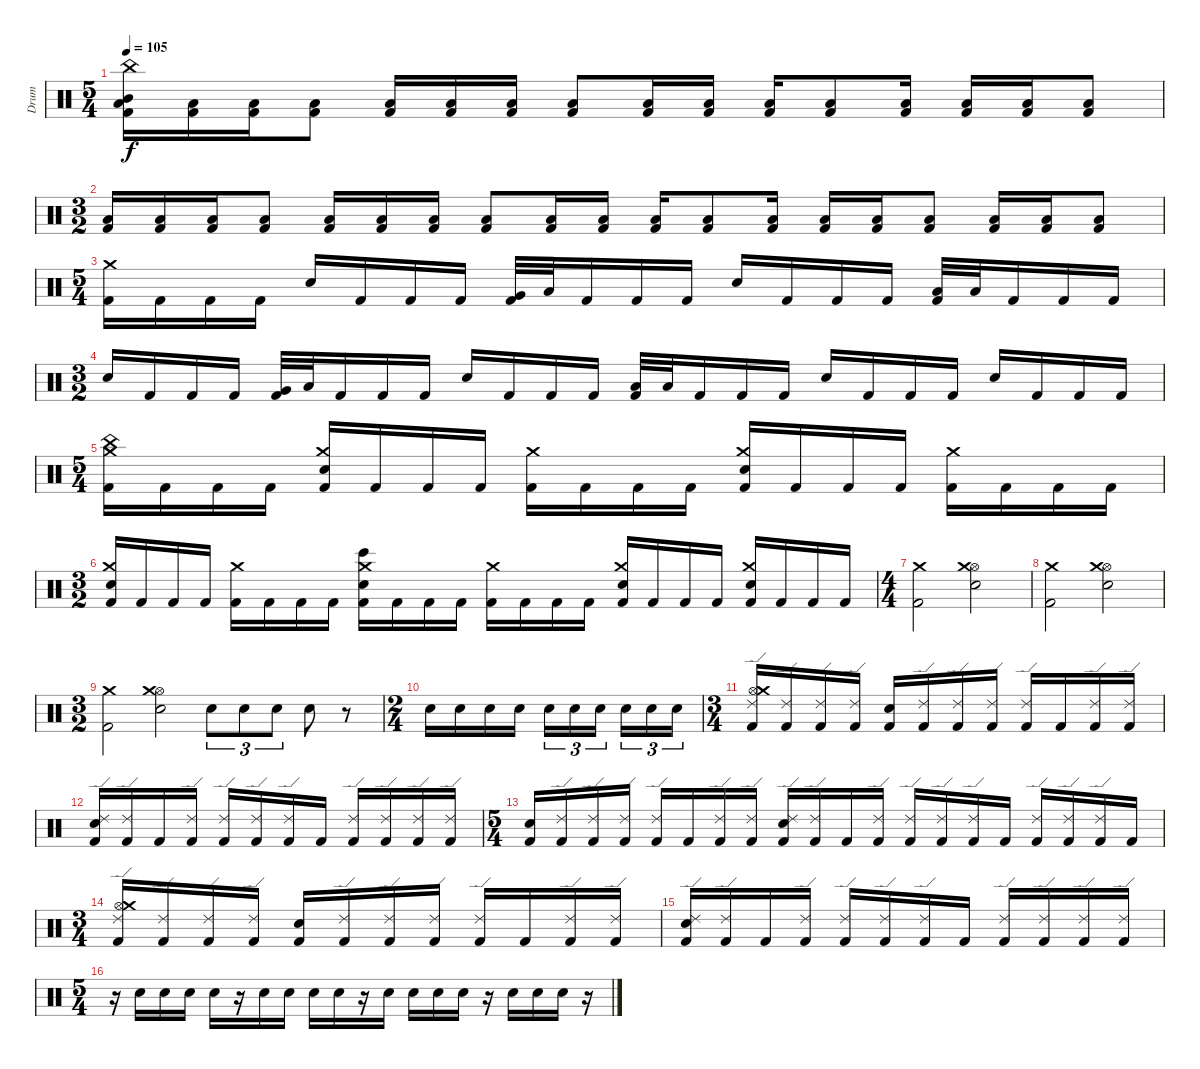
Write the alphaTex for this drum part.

\track ("Drum" "Drum") {instrument percussion}
\staff {score}
\articulation defaults
\ts (5 4)
\tempo 105
\clef neutral
\ks c
("China (hit)" "Low Floor Tom (hit)" "Mid Tom (hit)" "Kick (hit) 2").16{dy f} ("Low Floor Tom (hit)" "Kick (hit) 2").16 ("Low Floor Tom (hit)" "Kick (hit) 2").16 ("Low Floor Tom (hit)" "Kick (hit) 2").8 ("Low Floor Tom (hit)" "Kick (hit) 2").16 ("Low Floor Tom (hit)" "Kick (hit) 2").16 ("Low Floor Tom (hit)" "Kick (hit) 2").16 ("Low Floor Tom (hit)" "Kick (hit) 2").8 ("Low Floor Tom (hit)" "Kick (hit) 2").16 ("Low Floor Tom (hit)" "Kick (hit) 2").16 ("Low Floor Tom (hit)" "Kick (hit) 2").16 ("Low Floor Tom (hit)" "Kick (hit) 2").8 ("Low Floor Tom (hit)" "Kick (hit) 2").16 ("Low Floor Tom (hit)" "Kick (hit) 2").16 ("Low Floor Tom (hit)" "Kick (hit) 2").16 ("Low Floor Tom (hit)" "Kick (hit) 2").8 |
\ts (3 2)
("Low Floor Tom (hit)" "Kick (hit) 2").16 ("Low Floor Tom (hit)" "Kick (hit) 2").16 ("Low Floor Tom (hit)" "Kick (hit) 2").16 ("Low Floor Tom (hit)" "Kick (hit) 2").8 ("Low Floor Tom (hit)" "Kick (hit) 2").16 ("Low Floor Tom (hit)" "Kick (hit) 2").16 ("Low Floor Tom (hit)" "Kick (hit) 2").16 ("Low Floor Tom (hit)" "Kick (hit) 2").8 ("Low Floor Tom (hit)" "Kick (hit) 2").16 ("Low Floor Tom (hit)" "Kick (hit) 2").16 ("Low Floor Tom (hit)" "Kick (hit) 2").16 ("Low Floor Tom (hit)" "Kick (hit) 2").8 ("Low Floor Tom (hit)" "Kick (hit) 2").16 ("Low Floor Tom (hit)" "Kick (hit) 2").16 ("Low Floor Tom (hit)" "Kick (hit) 2").16 ("Low Floor Tom (hit)" "Kick (hit) 2").8 ("Low Floor Tom (hit)" "Kick (hit) 2").16 ("Low Floor Tom (hit)" "Kick (hit) 2").16 ("Low Floor Tom (hit)" "Kick (hit) 2").8 |
\ts (5 4)
("Crash medium (hit)" "Kick (hit) 2").16 "Kick (hit) 2".16 "Kick (hit) 2".16 "Kick (hit) 2".16 "Electric Snare (hit)".16 "Kick (hit) 2".16 "Kick (hit) 2".16 "Kick (hit) 2".16 ("Very Low Tom (hit)" "Kick (hit) 2").32 "Low Floor Tom (hit)".32 "Kick (hit) 2".16 "Kick (hit) 2".16 "Kick (hit) 2".16 "Electric Snare (hit)".16 "Kick (hit) 2".16 "Kick (hit) 2".16 "Kick (hit) 2".16 ("Low Floor Tom (hit)" "Kick (hit) 2").32 "Low Floor Tom (hit)".32 "Kick (hit) 2".16 "Kick (hit) 2".16 "Kick (hit) 2".16 |
\ts (3 2)
"Electric Snare (hit)".16 "Kick (hit) 2".16 "Kick (hit) 2".16 "Kick (hit) 2".16 ("Very Low Tom (hit)" "Kick (hit) 2").32 "Low Floor Tom (hit)".32 "Kick (hit) 2".16 "Kick (hit) 2".16 "Kick (hit) 2".16 "Electric Snare (hit)".16 "Kick (hit) 2".16 "Kick (hit) 2".16 "Kick (hit) 2".16 ("Low Floor Tom (hit)" "Kick (hit) 2").32 "Low Floor Tom (hit)".32 "Kick (hit) 2".16 "Kick (hit) 2".16 "Kick (hit) 2".16 "Electric Snare (hit)".16 "Kick (hit) 2".16 "Kick (hit) 2".16 "Kick (hit) 2".16 "Electric Snare (hit)".16 "Kick (hit) 2".16 "Kick (hit) 2".16 "Kick (hit) 2".16 |
\ts (5 4)
("Crash medium (hit)" "China (hit)" "Kick (hit) 2").16 "Kick (hit) 2".16 "Kick (hit) 2".16 "Kick (hit) 2".16 ("Electric Snare (hit)" "Crash medium (hit)" "Kick (hit) 2").16 "Kick (hit) 2".16 "Kick (hit) 2".16 "Kick (hit) 2".16 ("Crash medium (hit)" "Kick (hit) 2").16 "Kick (hit) 2".16 "Kick (hit) 2".16 "Kick (hit) 2".16 ("Electric Snare (hit)" "Crash medium (hit)" "Kick (hit) 2").16 "Kick (hit) 2".16 "Kick (hit) 2".16 "Kick (hit) 2".16 ("Crash medium (hit)" "Kick (hit) 2").16 "Kick (hit) 2".16 "Kick (hit) 2".16 "Kick (hit) 2".16 |
\ts (3 2)
("Electric Snare (hit)" "Crash medium (hit)" "Kick (hit) 2").16 "Kick (hit) 2".16 "Kick (hit) 2".16 "Kick (hit) 2".16 ("Crash medium (hit)" "Kick (hit) 2").16 "Kick (hit) 2".16 "Kick (hit) 2".16 "Kick (hit) 2".16 ("Bongo High (hit)" "Electric Snare (hit)" "Crash medium (hit)" "Kick (hit) 2").16 "Kick (hit) 2".16 "Kick (hit) 2".16 "Kick (hit) 2".16 ("Crash medium (hit)" "Kick (hit) 2").16 "Kick (hit) 2".16 "Kick (hit) 2".16 "Kick (hit) 2".16 ("Electric Snare (hit)" "Crash medium (hit)" "Kick (hit) 2").16 "Kick (hit) 2".16 "Kick (hit) 2".16 "Kick (hit) 2".16 ("Electric Snare (hit)" "Crash medium (hit)" "Kick (hit) 2").16 "Kick (hit) 2".16 "Kick (hit) 2".16 "Kick (hit) 2".16 |
\ts (4 4)
("Kick (hit) 2" "Crash medium (hit)").2 ("Electric Snare (hit)" "Hi-Hat (open)" "Crash medium (hit)").2 |
("Kick (hit) 2" "Crash medium (hit)").2 ("Electric Snare (hit)" "Hi-Hat (open)" "Crash medium (hit)").2 |
\ts (3 2)
("Crash medium (hit)" "Kick (hit) 2").2 ("Hi-Hat (open)" "Crash medium (hit)" "Electric Snare (hit)").2 "Electric Snare (hit)".8{tu (3 2)} "Electric Snare (hit)".8{tu (3 2)} "Electric Snare (hit)".8{tu (3 2)} "Electric Snare (hit)".8 r.8 |
\ts (2 4)
"Electric Snare (hit)".16 "Electric Snare (hit)".16 "Electric Snare (hit)".16 "Electric Snare (hit)".16 "Electric Snare (hit)".16{tu (3 2)} "Electric Snare (hit)".16{tu (3 2)} "Electric Snare (hit)".16{tu (3 2)} "Electric Snare (hit)".16{tu (3 2)} "Electric Snare (hit)".16{tu (3 2)} "Electric Snare (hit)".16{tu (3 2)} |
\ts (3 4)
("Hi-Hat (open)" "Crash medium (hit)" "Ride (edge) 2" "Kick (hit) 2").16 ("Ride (edge) 2" "Kick (hit) 2").16 ("Ride (edge) 2" "Kick (hit) 2").16 ("Ride (edge) 2" "Kick (hit) 2").16 ("Electric Snare (hit)" "Kick (hit) 2").16 ("Ride (edge) 2" "Kick (hit) 2").16 ("Ride (edge) 2" "Kick (hit) 2").16 ("Ride (edge) 2" "Kick (hit) 2").16 ("Ride (edge) 2" "Kick (hit) 2").16 "Kick (hit) 2".16 ("Ride (edge) 2" "Kick (hit) 2").16 ("Ride (edge) 2" "Kick (hit) 2").16 |
("Electric Snare (hit)" "Ride (edge) 2" "Kick (hit) 2").16 ("Ride (edge) 2" "Kick (hit) 2").16 "Kick (hit) 2".16 ("Ride (edge) 2" "Kick (hit) 2").16 ("Ride (edge) 2" "Kick (hit) 2").16 ("Ride (edge) 2" "Kick (hit) 2").16 ("Ride (edge) 2" "Kick (hit) 2").16 "Kick (hit) 2".16 ("Ride (edge) 2" "Kick (hit) 2").16 ("Ride (edge) 2" "Kick (hit) 2").16 ("Ride (edge) 2" "Kick (hit) 2").16 ("Ride (edge) 2" "Kick (hit) 2").16 |
\ts (5 4)
("Electric Snare (hit)" "Kick (hit) 2").16 ("Ride (edge) 2" "Kick (hit) 2").16 ("Ride (edge) 2" "Kick (hit) 2").16 ("Ride (edge) 2" "Kick (hit) 2").16 ("Ride (edge) 2" "Kick (hit) 2").16 "Kick (hit) 2".16 ("Ride (edge) 2" "Kick (hit) 2").16 ("Ride (edge) 2" "Kick (hit) 2").16 ("Electric Snare (hit)" "Ride (edge) 2" "Kick (hit) 2").16 ("Ride (edge) 2" "Kick (hit) 2").16 "Kick (hit) 2".16 ("Ride (edge) 2" "Kick (hit) 2").16 ("Ride (edge) 2" "Kick (hit) 2").16 ("Ride (edge) 2" "Kick (hit) 2").16 ("Ride (edge) 2" "Kick (hit) 2").16 "Kick (hit) 2".16 ("Ride (edge) 2" "Kick (hit) 2").16 ("Ride (edge) 2" "Kick (hit) 2").16 ("Ride (edge) 2" "Kick (hit) 2").16 "Kick (hit) 2".16 |
\ts (3 4)
("Hi-Hat (open)" "Crash medium (hit)" "Ride (edge) 2" "Kick (hit) 2").16 ("Ride (edge) 2" "Kick (hit) 2").16 ("Ride (edge) 2" "Kick (hit) 2").16 ("Ride (edge) 2" "Kick (hit) 2").16 ("Electric Snare (hit)" "Kick (hit) 2").16 ("Ride (edge) 2" "Kick (hit) 2").16 ("Ride (edge) 2" "Kick (hit) 2").16 ("Ride (edge) 2" "Kick (hit) 2").16 ("Ride (edge) 2" "Kick (hit) 2").16 "Kick (hit) 2".16 ("Ride (edge) 2" "Kick (hit) 2").16 ("Ride (edge) 2" "Kick (hit) 2").16 |
("Electric Snare (hit)" "Ride (edge) 2" "Kick (hit) 2").16 ("Ride (edge) 2" "Kick (hit) 2").16 "Kick (hit) 2".16 ("Ride (edge) 2" "Kick (hit) 2").16 ("Ride (edge) 2" "Kick (hit) 2").16 ("Ride (edge) 2" "Kick (hit) 2").16 ("Ride (edge) 2" "Kick (hit) 2").16 "Kick (hit) 2".16 ("Ride (edge) 2" "Kick (hit) 2").16 ("Ride (edge) 2" "Kick (hit) 2").16 ("Ride (edge) 2" "Kick (hit) 2").16 ("Ride (edge) 2" "Kick (hit) 2").16 |
\ts (5 4)
r.16 "Electric Snare (hit)".16 "Electric Snare (hit)".16 "Electric Snare (hit)".16 "Electric Snare (hit)".16 r.16 "Electric Snare (hit)".16 "Electric Snare (hit)".16 "Electric Snare (hit)".16 "Electric Snare (hit)".16 r.16 "Electric Snare (hit)".16 "Electric Snare (hit)".16 "Electric Snare (hit)".16 "Electric Snare (hit)".16 r.16 "Electric Snare (hit)".16 "Electric Snare (hit)".16 "Electric Snare (hit)".16 r.16
